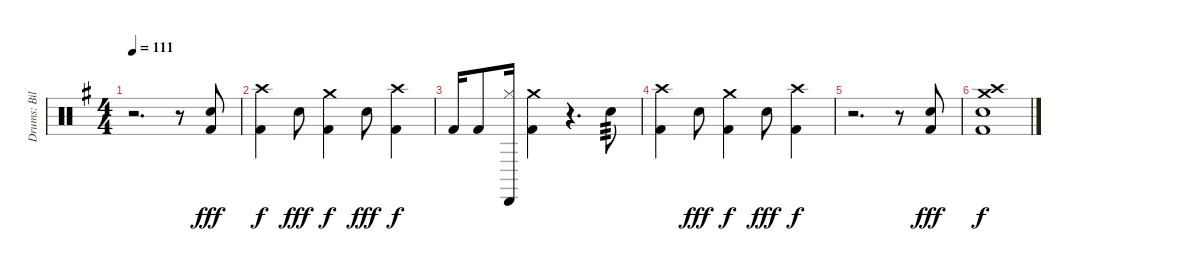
\track ("Drums: Bill" "Drums: Bil") {instrument percussion}
\staff {score}
\articulation defaults
\ts (4 4)
\tempo 111
\clef neutral
\ks g
r.2{d dy f} r.8 ("Electric Snare (hit)" "Kick (hit) 2").8{dy fff} |
("Crash high (hit)" "Kick (hit) 2").4{dy f} "Electric Snare (hit)".8{dy fff} ("Crash medium (hit)" "Kick (hit) 2").4{dy f} "Electric Snare (hit)".8{dy fff} ("Crash high (hit)" "Kick (hit) 2").4{dy f} |
"Kick (hit) 2".16 "Kick (hit) 2".8 ("Cabasa (hit)" "Hi-Hat (closed)").16 ("Crash medium (hit)" "Kick (hit) 2").4 r.4{d} "Snare (hit) 2".8{tp 3} |
("Crash high (hit)" "Kick (hit) 2").4 "Electric Snare (hit)".8{dy fff} ("Crash medium (hit)" "Kick (hit) 2").4{dy f} "Electric Snare (hit)".8{dy fff} ("Crash high (hit)" "Kick (hit) 2").4{dy f} |
r.2{d} r.8 ("Electric Snare (hit)" "Kick (hit) 2").8{dy fff} |
("Crash medium (hit)" "Crash high (hit)" "Snare (hit) 2" "Kick (hit) 2").1{dy f}
